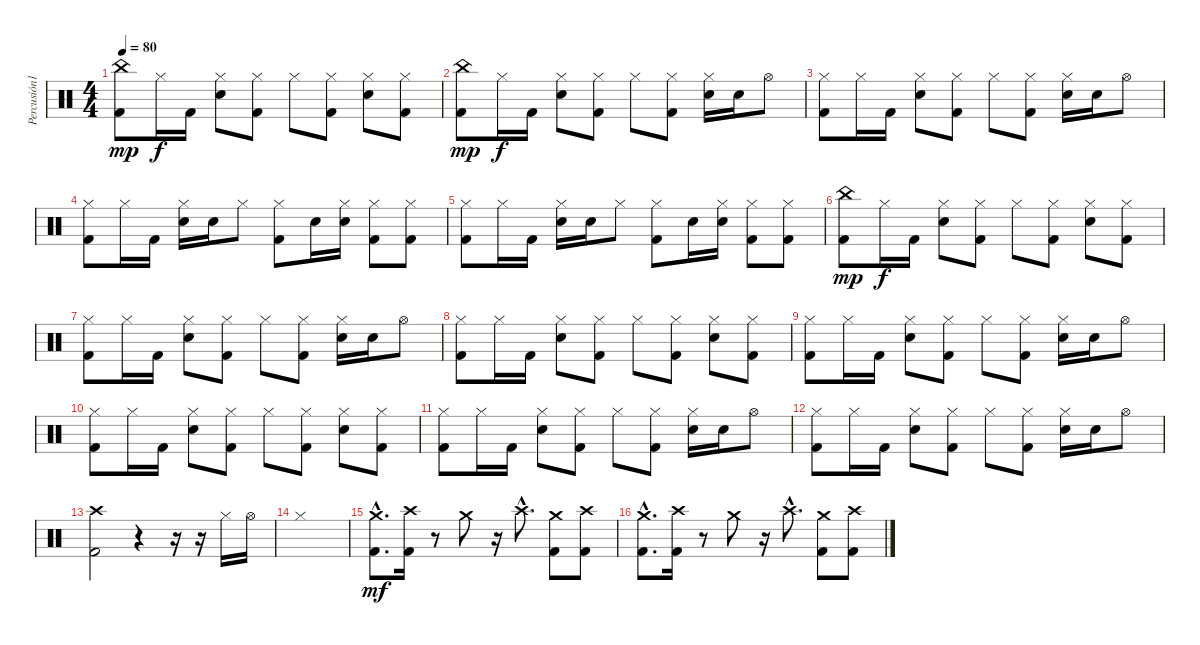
\track ("Percusión1" "Percusión1") {instrument percussion}
\staff {score}
\articulation defaults
\ts (4 4)
\tempo 80
\clef neutral
\ks c
("China (hit)" "Kick (hit) 2").8{dy mp} "Hi-Hat (closed)".16{dy f} "Kick (hit) 2".16 ("Hi-Hat (closed)" "Electric Snare (hit)").8 ("Hi-Hat (closed)" "Kick (hit) 2").8 "Hi-Hat (closed)".8 ("Hi-Hat (closed)" "Kick (hit) 2").8 ("Hi-Hat (closed)" "Electric Snare (hit)").8 ("Hi-Hat (closed)" "Kick (hit) 2").8 |
("China (hit)" "Kick (hit) 2").8{dy mp} "Hi-Hat (closed)".16{dy f} "Kick (hit) 2".16 ("Hi-Hat (closed)" "Electric Snare (hit)").8 ("Hi-Hat (closed)" "Kick (hit) 2").8 "Hi-Hat (closed)".8 ("Hi-Hat (closed)" "Kick (hit) 2").8 ("Hi-Hat (closed)" "Electric Snare (hit)").16 "Electric Snare (hit)".16 "Hi-Hat (open)".8 |
("Hi-Hat (closed)" "Kick (hit) 2").8 "Hi-Hat (closed)".16 "Kick (hit) 2".16 ("Hi-Hat (closed)" "Electric Snare (hit)").8 ("Hi-Hat (closed)" "Kick (hit) 2").8 "Hi-Hat (closed)".8 ("Hi-Hat (closed)" "Kick (hit) 2").8 ("Hi-Hat (closed)" "Electric Snare (hit)").16 "Electric Snare (hit)".16 "Hi-Hat (open)".8 |
("Hi-Hat (closed)" "Kick (hit) 2").8 "Hi-Hat (closed)".16 "Kick (hit) 2".16 ("Hi-Hat (closed)" "Electric Snare (hit)").16 "Electric Snare (hit)".16 "Hi-Hat (closed)".8 ("Hi-Hat (closed)" "Kick (hit) 2").8 "Electric Snare (hit)".16 ("Hi-Hat (closed)" "Electric Snare (hit)").16 ("Hi-Hat (closed)" "Kick (hit) 2").8 ("Hi-Hat (closed)" "Kick (hit) 2").8 |
("Hi-Hat (closed)" "Kick (hit) 2").8 "Hi-Hat (closed)".16 "Kick (hit) 2".16 ("Hi-Hat (closed)" "Electric Snare (hit)").16 "Electric Snare (hit)".16 "Hi-Hat (closed)".8 ("Hi-Hat (closed)" "Kick (hit) 2").8 "Electric Snare (hit)".16 ("Hi-Hat (closed)" "Electric Snare (hit)").16 ("Hi-Hat (closed)" "Kick (hit) 2").8 ("Hi-Hat (closed)" "Kick (hit) 2").8 |
("China (hit)" "Kick (hit) 2").8{dy mp} "Hi-Hat (closed)".16{dy f} "Kick (hit) 2".16 ("Hi-Hat (closed)" "Electric Snare (hit)").8 ("Hi-Hat (closed)" "Kick (hit) 2").8 "Hi-Hat (closed)".8 ("Hi-Hat (closed)" "Kick (hit) 2").8 ("Hi-Hat (closed)" "Electric Snare (hit)").8 ("Hi-Hat (closed)" "Kick (hit) 2").8 |
("Hi-Hat (closed)" "Kick (hit) 2").8 "Hi-Hat (closed)".16 "Kick (hit) 2".16 ("Hi-Hat (closed)" "Electric Snare (hit)").8 ("Hi-Hat (closed)" "Kick (hit) 2").8 "Hi-Hat (closed)".8 ("Hi-Hat (closed)" "Kick (hit) 2").8 ("Hi-Hat (closed)" "Electric Snare (hit)").16 "Electric Snare (hit)".16 "Hi-Hat (open)".8 |
("Hi-Hat (closed)" "Kick (hit) 2").8 "Hi-Hat (closed)".16 "Kick (hit) 2".16 ("Hi-Hat (closed)" "Electric Snare (hit)").8 ("Hi-Hat (closed)" "Kick (hit) 2").8 "Hi-Hat (closed)".8 ("Hi-Hat (closed)" "Kick (hit) 2").8 ("Hi-Hat (closed)" "Electric Snare (hit)").8 ("Hi-Hat (closed)" "Kick (hit) 2").8 |
("Hi-Hat (closed)" "Kick (hit) 2").8 "Hi-Hat (closed)".16 "Kick (hit) 2".16 ("Hi-Hat (closed)" "Electric Snare (hit)").8 ("Hi-Hat (closed)" "Kick (hit) 2").8 "Hi-Hat (closed)".8 ("Hi-Hat (closed)" "Kick (hit) 2").8 ("Hi-Hat (closed)" "Electric Snare (hit)").16 "Electric Snare (hit)".16 "Hi-Hat (open)".8 |
("Hi-Hat (closed)" "Kick (hit) 2").8 "Hi-Hat (closed)".16 "Kick (hit) 2".16 ("Hi-Hat (closed)" "Electric Snare (hit)").8 ("Hi-Hat (closed)" "Kick (hit) 2").8 "Hi-Hat (closed)".8 ("Hi-Hat (closed)" "Kick (hit) 2").8 ("Hi-Hat (closed)" "Electric Snare (hit)").8 ("Hi-Hat (closed)" "Kick (hit) 2").8 |
("Hi-Hat (closed)" "Kick (hit) 2").8 "Hi-Hat (closed)".16 "Kick (hit) 2".16 ("Hi-Hat (closed)" "Electric Snare (hit)").8 ("Hi-Hat (closed)" "Kick (hit) 2").8 "Hi-Hat (closed)".8 ("Hi-Hat (closed)" "Kick (hit) 2").8 ("Hi-Hat (closed)" "Electric Snare (hit)").16 "Electric Snare (hit)".16 "Hi-Hat (open)".8 |
("Hi-Hat (closed)" "Kick (hit) 2").8 "Hi-Hat (closed)".16 "Kick (hit) 2".16 ("Hi-Hat (closed)" "Electric Snare (hit)").8 ("Hi-Hat (closed)" "Kick (hit) 2").8 "Hi-Hat (closed)".8 ("Hi-Hat (closed)" "Kick (hit) 2").8 ("Hi-Hat (closed)" "Electric Snare (hit)").16 "Electric Snare (hit)".16 "Hi-Hat (open)".8 |
("Crash high (hit)" "Kick (hit) 2").2 r.4 r.16 r.16 "Hi-Hat (closed)".16 "Hi-Hat (open)".16 |
"Hi-Hat (closed)".1 |
("Crash medium (hit)"{hac} "Kick (hit) 2"{hac}).8{d dy mf} ("Crash high (hit)" "Kick (hit) 2").16 r.8 "Crash medium (hit)".8 r.16 "Crash high (hit)"{hac}.8{d} ("Crash medium (hit)" "Kick (hit) 2").8 ("Crash high (hit)" "Kick (hit) 2").8 |
("Crash medium (hit)"{hac} "Kick (hit) 2"{hac}).8{d} ("Crash high (hit)" "Kick (hit) 2").16 r.8 "Crash medium (hit)".8 r.16 "Crash high (hit)"{hac}.8{d} ("Crash medium (hit)" "Kick (hit) 2").8 ("Crash high (hit)" "Kick (hit) 2").8
